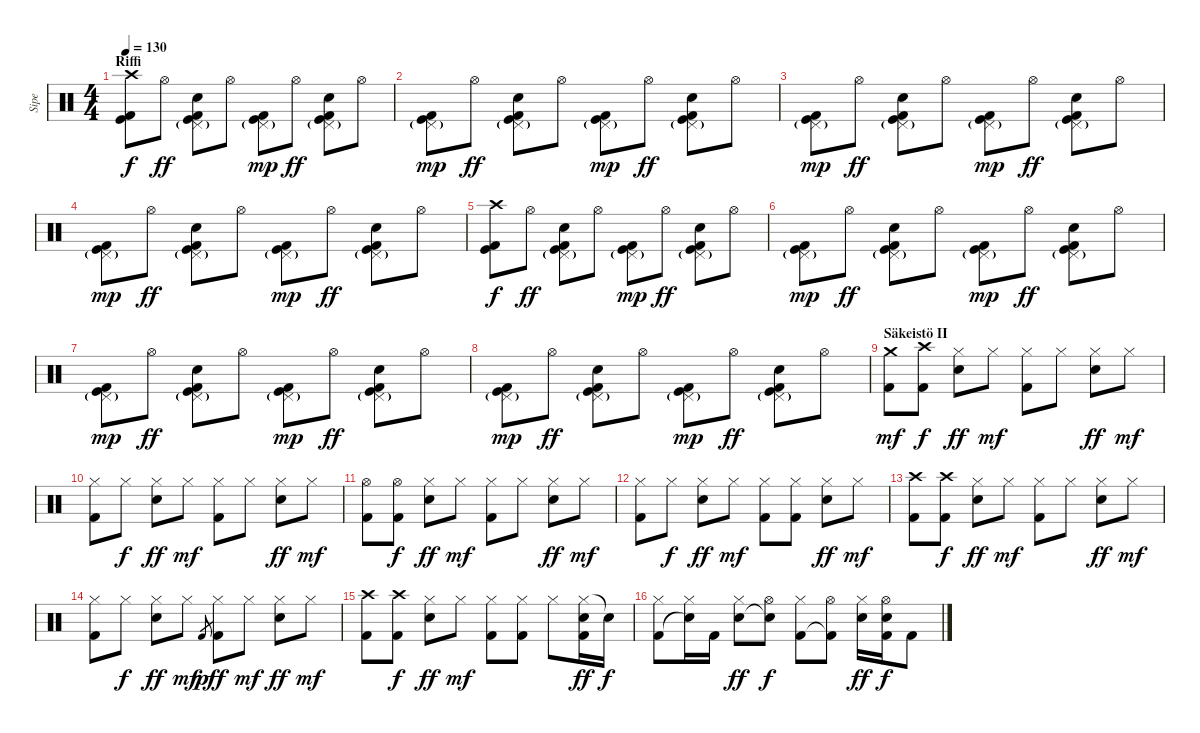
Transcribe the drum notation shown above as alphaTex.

\track ("Sipe" "Sipe") {instrument percussion}
\staff {score}
\articulation defaults
\ts (4 4)
\section ("" "Riffi")
\tempo 130
\clef neutral
\ks c
("Crash high (hit)" "Kick (hit)" "Kick (hit) 2").8{dy f} "Hi-Hat (open)".8{dy ff} ("Pedal Hi-Hat (hit)"{g} "Electric Snare (hit)" "Kick (hit)" "Kick (hit) 2").8 "Hi-Hat (open)".8 ("Pedal Hi-Hat (hit)"{g} "Kick (hit)" "Kick (hit) 2").8{dy mp} "Hi-Hat (open)".8{dy ff} ("Pedal Hi-Hat (hit)"{g} "Electric Snare (hit)" "Kick (hit)" "Kick (hit) 2").8 "Hi-Hat (open)".8 |
("Pedal Hi-Hat (hit)"{g} "Kick (hit)" "Kick (hit) 2").8{dy mp} "Hi-Hat (open)".8{dy ff} ("Pedal Hi-Hat (hit)"{g} "Electric Snare (hit)" "Kick (hit)" "Kick (hit) 2").8 "Hi-Hat (open)".8 ("Pedal Hi-Hat (hit)"{g} "Kick (hit)" "Kick (hit) 2").8{dy mp} "Hi-Hat (open)".8{dy ff} ("Pedal Hi-Hat (hit)"{g} "Electric Snare (hit)" "Kick (hit)" "Kick (hit) 2").8 "Hi-Hat (open)".8 |
("Pedal Hi-Hat (hit)"{g} "Kick (hit)" "Kick (hit) 2").8{dy mp} "Hi-Hat (open)".8{dy ff} ("Pedal Hi-Hat (hit)"{g} "Electric Snare (hit)" "Kick (hit)" "Kick (hit) 2").8 "Hi-Hat (open)".8 ("Pedal Hi-Hat (hit)"{g} "Kick (hit)" "Kick (hit) 2").8{dy mp} "Hi-Hat (open)".8{dy ff} ("Pedal Hi-Hat (hit)"{g} "Electric Snare (hit)" "Kick (hit)" "Kick (hit) 2").8 "Hi-Hat (open)".8 |
("Pedal Hi-Hat (hit)"{g} "Kick (hit)" "Kick (hit) 2").8{dy mp} "Hi-Hat (open)".8{dy ff} ("Pedal Hi-Hat (hit)"{g} "Electric Snare (hit)" "Kick (hit)" "Kick (hit) 2").8 "Hi-Hat (open)".8 ("Pedal Hi-Hat (hit)"{g} "Kick (hit)" "Kick (hit) 2").8{dy mp} "Hi-Hat (open)".8{dy ff} ("Pedal Hi-Hat (hit)"{g} "Electric Snare (hit)" "Kick (hit)" "Kick (hit) 2").8 "Hi-Hat (open)".8 |
("Crash high (hit)" "Kick (hit)" "Kick (hit) 2").8{dy f} "Hi-Hat (open)".8{dy ff} ("Pedal Hi-Hat (hit)"{g} "Electric Snare (hit)" "Kick (hit)" "Kick (hit) 2").8 "Hi-Hat (open)".8 ("Pedal Hi-Hat (hit)"{g} "Kick (hit)" "Kick (hit) 2").8{dy mp} "Hi-Hat (open)".8{dy ff} ("Pedal Hi-Hat (hit)"{g} "Electric Snare (hit)" "Kick (hit)" "Kick (hit) 2").8 "Hi-Hat (open)".8 |
("Pedal Hi-Hat (hit)"{g} "Kick (hit)" "Kick (hit) 2").8{dy mp} "Hi-Hat (open)".8{dy ff} ("Pedal Hi-Hat (hit)"{g} "Electric Snare (hit)" "Kick (hit)" "Kick (hit) 2").8 "Hi-Hat (open)".8 ("Pedal Hi-Hat (hit)"{g} "Kick (hit)" "Kick (hit) 2").8{dy mp} "Hi-Hat (open)".8{dy ff} ("Pedal Hi-Hat (hit)"{g} "Electric Snare (hit)" "Kick (hit)" "Kick (hit) 2").8 "Hi-Hat (open)".8 |
("Pedal Hi-Hat (hit)"{g} "Kick (hit)" "Kick (hit) 2").8{dy mp} "Hi-Hat (open)".8{dy ff} ("Pedal Hi-Hat (hit)"{g} "Electric Snare (hit)" "Kick (hit)" "Kick (hit) 2").8 "Hi-Hat (open)".8 ("Pedal Hi-Hat (hit)"{g} "Kick (hit)" "Kick (hit) 2").8{dy mp} "Hi-Hat (open)".8{dy ff} ("Pedal Hi-Hat (hit)"{g} "Electric Snare (hit)" "Kick (hit)" "Kick (hit) 2").8 "Hi-Hat (open)".8 |
("Pedal Hi-Hat (hit)"{g} "Kick (hit)" "Kick (hit) 2").8{dy mp} "Hi-Hat (open)".8{dy ff} ("Pedal Hi-Hat (hit)"{g} "Electric Snare (hit)" "Kick (hit)" "Kick (hit) 2").8 "Hi-Hat (open)".8 ("Pedal Hi-Hat (hit)"{g} "Kick (hit)" "Kick (hit) 2").8{dy mp} "Hi-Hat (open)".8{dy ff} ("Pedal Hi-Hat (hit)"{g} "Electric Snare (hit)" "Kick (hit)" "Kick (hit) 2").8 "Hi-Hat (open)".8 |
\section ("" "Säkeistö II")
("Crash medium (hit)" "Kick (hit) 2").8{dy mf} ("Crash high (hit)" "Kick (hit) 2").8{dy f} ("Hi-Hat (closed)" "Electric Snare (hit)").8{dy ff} "Hi-Hat (closed)".8{dy mf} ("Hi-Hat (closed)" "Kick (hit) 2").8 "Hi-Hat (closed)".8 ("Hi-Hat (closed)" "Electric Snare (hit)").8{dy ff} "Hi-Hat (closed)".8{dy mf} |
("Hi-Hat (closed)" "Kick (hit) 2").8 "Hi-Hat (closed)".8{dy f} ("Hi-Hat (closed)" "Electric Snare (hit)").8{dy ff} "Hi-Hat (closed)".8{dy mf} ("Hi-Hat (closed)" "Kick (hit) 2").8 "Hi-Hat (closed)".8 ("Hi-Hat (closed)" "Electric Snare (hit)").8{dy ff} "Hi-Hat (closed)".8{dy mf} |
("Hi-Hat (open)" "Kick (hit) 2").8 ("Hi-Hat (open)" "Kick (hit) 2").8{dy f} ("Hi-Hat (closed)" "Electric Snare (hit)").8{dy ff} "Hi-Hat (closed)".8{dy mf} ("Hi-Hat (closed)" "Kick (hit) 2").8 "Hi-Hat (closed)".8 ("Hi-Hat (closed)" "Electric Snare (hit)").8{dy ff} "Hi-Hat (closed)".8{dy mf} |
("Hi-Hat (closed)" "Kick (hit) 2").8 "Hi-Hat (closed)".8{dy f} ("Hi-Hat (closed)" "Electric Snare (hit)").8{dy ff} "Hi-Hat (closed)".8{dy mf} ("Hi-Hat (closed)" "Kick (hit) 2").8 ("Hi-Hat (closed)" "Kick (hit) 2").8 ("Hi-Hat (closed)" "Electric Snare (hit)").8{dy ff} "Hi-Hat (closed)".8{dy mf} |
("Crash high (hit)" "Kick (hit) 2").8 ("Crash high (hit)" "Kick (hit) 2").8{dy f} ("Hi-Hat (closed)" "Electric Snare (hit)").8{dy ff} "Hi-Hat (closed)".8{dy mf} ("Hi-Hat (closed)" "Kick (hit) 2").8 "Hi-Hat (closed)".8 ("Hi-Hat (closed)" "Electric Snare (hit)").8{dy ff} "Hi-Hat (closed)".8{dy mf} |
("Hi-Hat (closed)" "Kick (hit) 2").8 "Hi-Hat (closed)".8{dy f} ("Hi-Hat (closed)" "Electric Snare (hit)").8{dy ff} "Hi-Hat (closed)".8{dy mf} "Kick (hit) 2".8{gr dy p} ("Hi-Hat (closed)" "Kick (hit) 2").8{dy ff} "Hi-Hat (closed)".8{dy mf} ("Hi-Hat (closed)" "Electric Snare (hit)").8{dy ff} "Hi-Hat (closed)".8{dy mf} |
("Crash high (hit)" "Kick (hit) 2").8 ("Crash high (hit)" "Kick (hit) 2").8{dy f} ("Hi-Hat (closed)" "Electric Snare (hit)").8{dy ff} "Hi-Hat (closed)".8{dy mf} ("Hi-Hat (closed)" "Kick (hit) 2").8 ("Hi-Hat (closed)" "Kick (hit) 2").8 "Hi-Hat (closed)".8 ("Hi-Hat (closed)" "Electric Snare (hit)" "Kick (hit) 2").16{dy ff} "Snare (hit)"{t}.16{dy f} |
("Hi-Hat (closed)" "Kick (hit) 2").8 ("Hi-Hat (closed)" "Snare (hit)"{t}).16 "Kick (hit) 2".16 ("Hi-Hat (closed)" "Electric Snare (hit)").8{dy ff} ("Hi-Hat (open)" "Snare (hit)"{t}).8{dy f} ("Hi-Hat (closed)" "Kick (hit) 2").8 ("Hi-Hat (open)" "Kick (hit) 2"{t}).8 ("Hi-Hat (closed)" "Electric Snare (hit)").16{dy ff} ("Hi-Hat (open)" "Electric Snare (hit)" "Kick (hit) 2").16{dy f} "Kick (hit) 2".8
